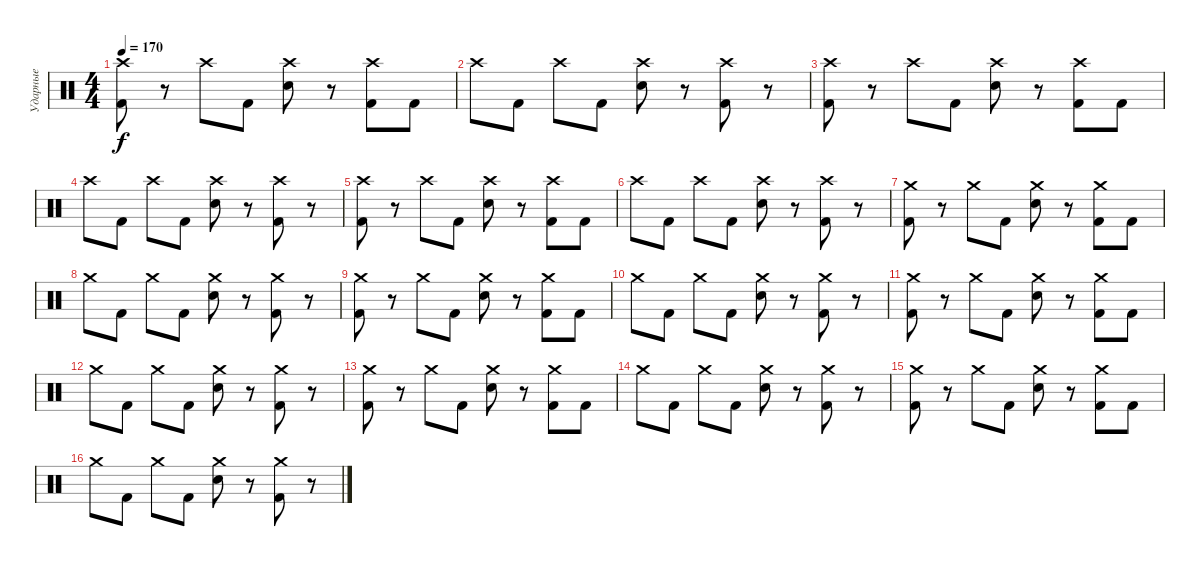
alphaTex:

\track ("Ударные" "Ударные") {instrument percussion}
\staff
\articulation defaults
\ts (4 4)
\tempo 170
\clef neutral
\ks c
("Crash high (hit)" "Kick (hit) 2").8{dy f} r.8 "Crash high (hit)".8 "Kick (hit) 2".8 ("Crash high (hit)" "Electric Snare (hit)").8 r.8 ("Crash high (hit)" "Kick (hit) 2").8 "Kick (hit) 2".8 |
"Crash high (hit)".8 "Kick (hit) 2".8 "Crash high (hit)".8 "Kick (hit) 2".8 ("Crash high (hit)" "Electric Snare (hit)").8 r.8 ("Crash high (hit)" "Kick (hit) 2").8 r.8 |
("Crash high (hit)" "Kick (hit) 2").8 r.8 "Crash high (hit)".8 "Kick (hit) 2".8 ("Crash high (hit)" "Electric Snare (hit)").8 r.8 ("Crash high (hit)" "Kick (hit) 2").8 "Kick (hit) 2".8 |
"Crash high (hit)".8 "Kick (hit) 2".8 "Crash high (hit)".8 "Kick (hit) 2".8 ("Crash high (hit)" "Electric Snare (hit)").8 r.8 ("Crash high (hit)" "Kick (hit) 2").8 r.8 |
("Crash high (hit)" "Kick (hit) 2").8 r.8 "Crash high (hit)".8 "Kick (hit) 2".8 ("Crash high (hit)" "Electric Snare (hit)").8 r.8 ("Crash high (hit)" "Kick (hit) 2").8 "Kick (hit) 2".8 |
"Crash high (hit)".8 "Kick (hit) 2".8 "Crash high (hit)".8 "Kick (hit) 2".8 ("Crash high (hit)" "Electric Snare (hit)").8 r.8 ("Crash high (hit)" "Kick (hit) 2").8 r.8 |
("Crash medium (hit)" "Kick (hit) 2").8 r.8 "Crash medium (hit)".8 "Kick (hit) 2".8 ("Crash medium (hit)" "Electric Snare (hit)").8 r.8 ("Crash medium (hit)" "Kick (hit) 2").8 "Kick (hit) 2".8 |
"Crash medium (hit)".8 "Kick (hit) 2".8 "Crash medium (hit)".8 "Kick (hit) 2".8 ("Crash medium (hit)" "Electric Snare (hit)").8 r.8 ("Crash medium (hit)" "Kick (hit) 2").8 r.8 |
("Crash medium (hit)" "Kick (hit) 2").8 r.8 "Crash medium (hit)".8 "Kick (hit) 2".8 ("Crash medium (hit)" "Electric Snare (hit)").8 r.8 ("Crash medium (hit)" "Kick (hit) 2").8 "Kick (hit) 2".8 |
"Crash medium (hit)".8 "Kick (hit) 2".8 "Crash medium (hit)".8 "Kick (hit) 2".8 ("Crash medium (hit)" "Electric Snare (hit)").8 r.8 ("Crash medium (hit)" "Kick (hit) 2").8 r.8 |
("Crash medium (hit)" "Kick (hit) 2").8 r.8 "Crash medium (hit)".8 "Kick (hit) 2".8 ("Crash medium (hit)" "Electric Snare (hit)").8 r.8 ("Crash medium (hit)" "Kick (hit) 2").8 "Kick (hit) 2".8 |
"Crash medium (hit)".8 "Kick (hit) 2".8 "Crash medium (hit)".8 "Kick (hit) 2".8 ("Crash medium (hit)" "Electric Snare (hit)").8 r.8 ("Crash medium (hit)" "Kick (hit) 2").8 r.8 |
("Crash medium (hit)" "Kick (hit) 2").8 r.8 "Crash medium (hit)".8 "Kick (hit) 2".8 ("Crash medium (hit)" "Electric Snare (hit)").8 r.8 ("Crash medium (hit)" "Kick (hit) 2").8 "Kick (hit) 2".8 |
"Crash medium (hit)".8 "Kick (hit) 2".8 "Crash medium (hit)".8 "Kick (hit) 2".8 ("Crash medium (hit)" "Electric Snare (hit)").8 r.8 ("Crash medium (hit)" "Kick (hit) 2").8 r.8 |
("Crash medium (hit)" "Kick (hit) 2").8 r.8 "Crash medium (hit)".8 "Kick (hit) 2".8 ("Crash medium (hit)" "Electric Snare (hit)").8 r.8 ("Crash medium (hit)" "Kick (hit) 2").8 "Kick (hit) 2".8 |
"Crash medium (hit)".8 "Kick (hit) 2".8 "Crash medium (hit)".8 "Kick (hit) 2".8 ("Crash medium (hit)" "Electric Snare (hit)").8 r.8 ("Crash medium (hit)" "Kick (hit) 2").8 r.8
